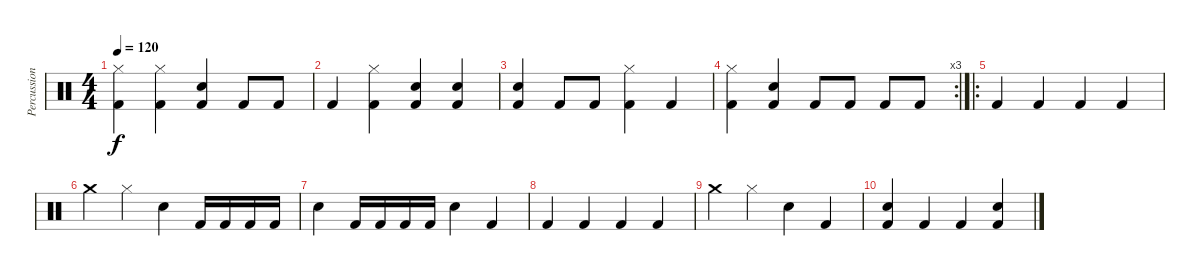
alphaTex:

\track ("Percussion" "Percussion") {instrument percussion}
\staff {score}
\articulation defaults
\ts (4 4)
\tempo 120
\clef neutral
\ks c
("Hi-Hat (closed)" "Kick (hit) 2").4{dy f} ("Hi-Hat (closed)" "Kick (hit) 2").4 ("Snare (hit) 2" "Kick (hit) 2").4 "Kick (hit) 2".8 "Kick (hit) 2".8 |
"Kick (hit) 2".4 ("Hi-Hat (closed)" "Kick (hit) 2").4 ("Snare (hit) 2" "Kick (hit) 2").4 ("Snare (hit) 2" "Kick (hit) 2").4 |
("Snare (hit) 2" "Kick (hit) 2").4 "Kick (hit) 2".8 "Kick (hit) 2".8 ("Hi-Hat (closed)" "Kick (hit) 2").4 "Kick (hit) 2".4 |
\rc 3
("Hi-Hat (closed)" "Kick (hit) 2").4 ("Snare (hit) 2" "Kick (hit) 2").4 "Kick (hit) 2".8 "Kick (hit) 2".8 "Kick (hit) 2".8 "Kick (hit) 2".8 |
\ro "Kick (hit) 2".4 "Kick (hit) 2".4 "Kick (hit) 2".4 "Kick (hit) 2".4
|
"Crash medium (hit)".4 "Hi-Hat (closed)".4 "Snare (hit) 2".4 "Kick (hit) 2".16 "Kick (hit) 2".16 "Kick (hit) 2".16 "Kick (hit) 2".16 |
"Snare (hit) 2".4 "Kick (hit) 2".16 "Kick (hit) 2".16 "Kick (hit) 2".16 "Kick (hit) 2".16 "Snare (hit) 2".4 "Kick (hit) 2".4 |
"Kick (hit) 2".4 "Kick (hit) 2".4 "Kick (hit) 2".4 "Kick (hit) 2".4 |
"Crash medium (hit)".4 "Hi-Hat (closed)".4 "Snare (hit) 2".4 "Kick (hit) 2".4 |
("Snare (hit) 2" "Kick (hit) 2").4 "Kick (hit) 2".4 "Kick (hit) 2".4 ("Snare (hit) 2" "Kick (hit) 2").4
